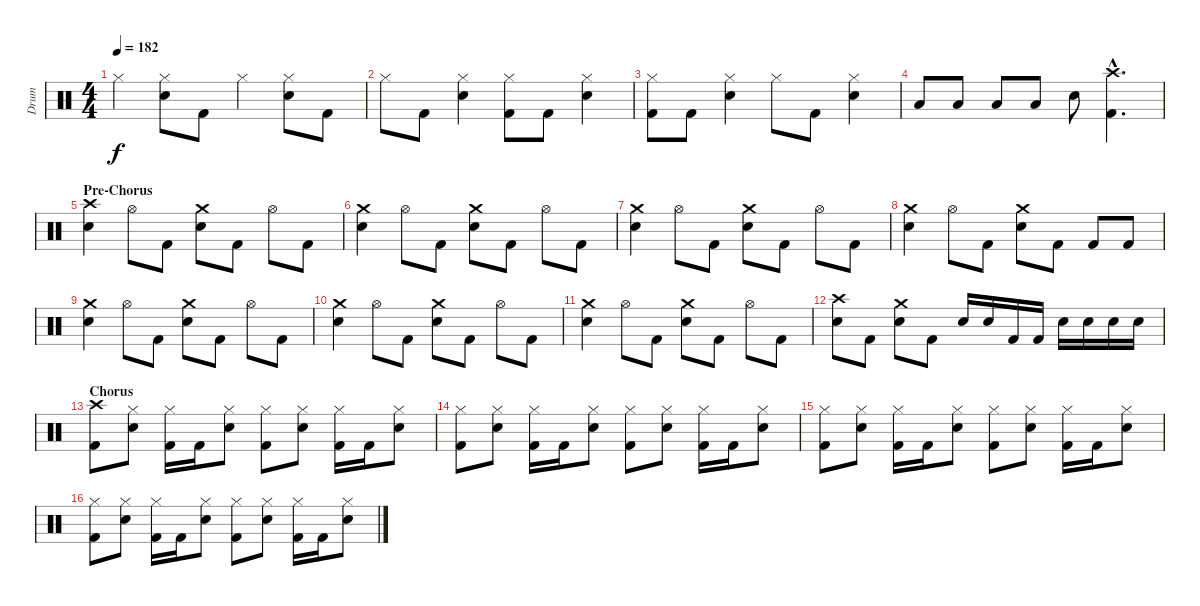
\track ("Drum" "Drum") {instrument percussion}
\staff {score}
\articulation defaults
\ts (4 4)
\tempo 182
\clef neutral
\ks c "Hi-Hat (closed)".4{dy f}
("Hi-Hat (closed)" "Electric Snare (hit)").8 "Kick (hit) 2".8 "Hi-Hat (closed)".4 ("Hi-Hat (closed)" "Electric Snare (hit)").8 "Kick (hit) 2".8 |
"Hi-Hat (closed)".8 "Kick (hit) 2".8 ("Hi-Hat (closed)" "Electric Snare (hit)").4 ("Hi-Hat (closed)" "Kick (hit) 2").8 "Kick (hit) 2".8 ("Hi-Hat (closed)" "Electric Snare (hit)").4 |
("Hi-Hat (closed)" "Kick (hit) 2").8 "Kick (hit) 2".8 ("Hi-Hat (closed)" "Electric Snare (hit)").4 "Hi-Hat (closed)".8 "Kick (hit) 2".8 ("Hi-Hat (closed)" "Electric Snare (hit)").4 |
"Low Tom (hit)".8 "Low Tom (hit)".8 "Low Tom (hit)".8 "Low Tom (hit)".8 "Electric Snare (hit)".8 ("Crash high (hit)"{hac} "Kick (hit) 2"{hac}).4{d} |
\section ("" "Pre-Chorus")
("Crash high (hit)" "Electric Snare (hit)").4 "Hi-Hat (open)".8 "Kick (hit) 2".8 ("Crash medium (hit)" "Electric Snare (hit)").8 "Kick (hit) 2".8 "Hi-Hat (open)".8 "Kick (hit) 2".8 |
("Crash medium (hit)" "Electric Snare (hit)").4 "Hi-Hat (open)".8 "Kick (hit) 2".8 ("Crash medium (hit)" "Electric Snare (hit)").8 "Kick (hit) 2".8 "Hi-Hat (open)".8 "Kick (hit) 2".8 |
("Crash medium (hit)" "Electric Snare (hit)").4 "Hi-Hat (open)".8 "Kick (hit) 2".8 ("Crash medium (hit)" "Electric Snare (hit)").8 "Kick (hit) 2".8 "Hi-Hat (open)".8 "Kick (hit) 2".8 |
("Crash medium (hit)" "Electric Snare (hit)").4 "Hi-Hat (open)".8 "Kick (hit) 2".8 ("Crash medium (hit)" "Electric Snare (hit)").8 "Kick (hit) 2".8 "Kick (hit) 2".8 "Kick (hit) 2".8 |
("Crash medium (hit)" "Electric Snare (hit)").4 "Hi-Hat (open)".8 "Kick (hit) 2".8 ("Crash medium (hit)" "Electric Snare (hit)").8 "Kick (hit) 2".8 "Hi-Hat (open)".8 "Kick (hit) 2".8 |
("Crash medium (hit)" "Electric Snare (hit)").4 "Hi-Hat (open)".8 "Kick (hit) 2".8 ("Crash medium (hit)" "Electric Snare (hit)").8 "Kick (hit) 2".8 "Hi-Hat (open)".8 "Kick (hit) 2".8 |
("Crash medium (hit)" "Electric Snare (hit)").4 "Hi-Hat (open)".8 "Kick (hit) 2".8 ("Crash medium (hit)" "Electric Snare (hit)").8 "Kick (hit) 2".8 "Hi-Hat (open)".8 "Kick (hit) 2".8 |
("Crash high (hit)" "Electric Snare (hit)").8 "Kick (hit) 2".8 ("Crash medium (hit)" "Electric Snare (hit)").8 "Kick (hit) 2".8 "Electric Snare (hit)".16 "Electric Snare (hit)".16 "Kick (hit) 2".16 "Kick (hit) 2".16 "Electric Snare (hit)".16 "Electric Snare (hit)".16 "Electric Snare (hit)".16 "Electric Snare (hit)".16 |
\section ("" "Chorus")
("Crash high (hit)" "Kick (hit) 2").8 ("Hi-Hat (closed)" "Electric Snare (hit)").8 ("Hi-Hat (closed)" "Kick (hit) 2").16 "Kick (hit) 2".16 ("Hi-Hat (closed)" "Electric Snare (hit)").8 ("Hi-Hat (closed)" "Kick (hit) 2").8 ("Hi-Hat (closed)" "Electric Snare (hit)").8 ("Hi-Hat (closed)" "Kick (hit) 2").16 "Kick (hit) 2".16 ("Hi-Hat (closed)" "Electric Snare (hit)").8 |
("Hi-Hat (closed)" "Kick (hit) 2").8 ("Hi-Hat (closed)" "Electric Snare (hit)").8 ("Hi-Hat (closed)" "Kick (hit) 2").16 "Kick (hit) 2".16 ("Hi-Hat (closed)" "Electric Snare (hit)").8 ("Hi-Hat (closed)" "Kick (hit) 2").8 ("Hi-Hat (closed)" "Electric Snare (hit)").8 ("Hi-Hat (closed)" "Kick (hit) 2").16 "Kick (hit) 2".16 ("Hi-Hat (closed)" "Electric Snare (hit)").8 |
("Hi-Hat (closed)" "Kick (hit) 2").8 ("Hi-Hat (closed)" "Electric Snare (hit)").8 ("Hi-Hat (closed)" "Kick (hit) 2").16 "Kick (hit) 2".16 ("Hi-Hat (closed)" "Electric Snare (hit)").8 ("Hi-Hat (closed)" "Kick (hit) 2").8 ("Hi-Hat (closed)" "Electric Snare (hit)").8 ("Hi-Hat (closed)" "Kick (hit) 2").16 "Kick (hit) 2".16 ("Hi-Hat (closed)" "Electric Snare (hit)").8 |
("Hi-Hat (closed)" "Kick (hit) 2").8 ("Hi-Hat (closed)" "Electric Snare (hit)").8 ("Hi-Hat (closed)" "Kick (hit) 2").16 "Kick (hit) 2".16 ("Hi-Hat (closed)" "Electric Snare (hit)").8 ("Hi-Hat (closed)" "Kick (hit) 2").8 ("Hi-Hat (closed)" "Electric Snare (hit)").8 ("Hi-Hat (closed)" "Kick (hit) 2").16 "Kick (hit) 2".16 ("Hi-Hat (closed)" "Electric Snare (hit)").8
